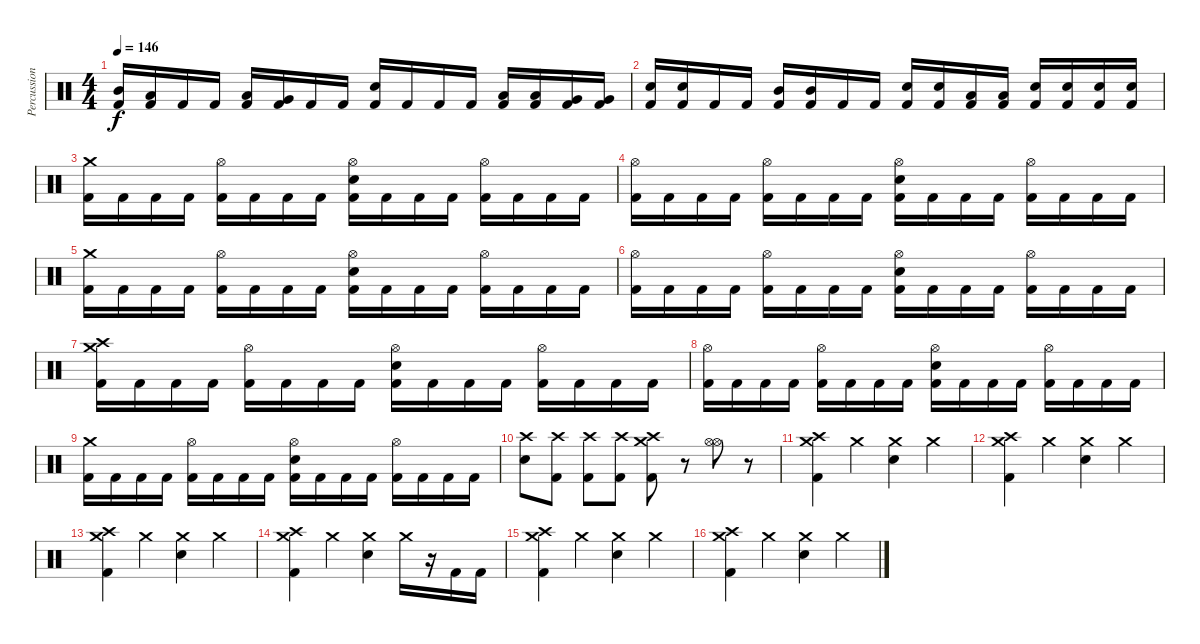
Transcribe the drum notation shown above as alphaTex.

\track ("Percussion" "Percussion") {instrument percussion}
\staff {score}
\articulation defaults
\ts (4 4)
\tempo 146
\clef neutral
\ks c
("Mid Tom (hit)" "Kick (hit) 2").16{dy f} ("Low Tom (hit)" "Kick (hit) 2").16 "Kick (hit) 2".16 "Kick (hit) 2".16 ("Low Tom (hit)" "Kick (hit) 2").16 ("Very Low Tom (hit)" "Kick (hit) 2").16 "Kick (hit) 2".16 "Kick (hit) 2".16 ("Snare (hit) 2" "Kick (hit) 2").16 "Kick (hit) 2".16 "Kick (hit) 2".16 "Kick (hit) 2".16 ("Low Tom (hit)" "Kick (hit) 2").16 ("Low Tom (hit)" "Kick (hit) 2").16 ("Very Low Tom (hit)" "Kick (hit) 2").16 ("Very Low Tom (hit)" "Kick (hit) 2").16 |
("Snare (hit) 2" "Kick (hit) 2").16 ("Snare (hit) 2" "Kick (hit) 2").16 "Kick (hit) 2".16 "Kick (hit) 2".16 ("Mid Tom (hit)" "Kick (hit) 2").16 ("Mid Tom (hit)" "Kick (hit) 2").16 "Kick (hit) 2".16 "Kick (hit) 2".16 ("Snare (hit) 2" "Kick (hit) 2").16 ("Snare (hit) 2" "Kick (hit) 2").16 ("Low Tom (hit)" "Kick (hit) 2").16 ("Low Tom (hit)" "Kick (hit) 2").16 ("Snare (hit) 2" "Kick (hit) 2").16 ("Snare (hit) 2" "Kick (hit) 2").16 ("Snare (hit) 2" "Kick (hit) 2").16 ("Snare (hit) 2" "Kick (hit) 2").16 |
("Crash medium (hit)" "Kick (hit) 2").16 "Kick (hit) 2".16 "Kick (hit) 2".16 "Kick (hit) 2".16 ("Hi-Hat (open)" "Kick (hit) 2").16 "Kick (hit) 2".16 "Kick (hit) 2".16 "Kick (hit) 2".16 ("Hi-Hat (open)" "Snare (hit) 2" "Kick (hit) 2").16 "Kick (hit) 2".16 "Kick (hit) 2".16 "Kick (hit) 2".16 ("Hi-Hat (open)" "Kick (hit) 2").16 "Kick (hit) 2".16 "Kick (hit) 2".16 "Kick (hit) 2".16 |
("Hi-Hat (open)" "Kick (hit) 2").16 "Kick (hit) 2".16 "Kick (hit) 2".16 "Kick (hit) 2".16 ("Hi-Hat (open)" "Kick (hit) 2").16 "Kick (hit) 2".16 "Kick (hit) 2".16 "Kick (hit) 2".16 ("Hi-Hat (open)" "Snare (hit) 2" "Kick (hit) 2").16 "Kick (hit) 2".16 "Kick (hit) 2".16 "Kick (hit) 2".16 ("Hi-Hat (open)" "Kick (hit) 2").16 "Kick (hit) 2".16 "Kick (hit) 2".16 "Kick (hit) 2".16 |
("Crash medium (hit)" "Kick (hit) 2").16 "Kick (hit) 2".16 "Kick (hit) 2".16 "Kick (hit) 2".16 ("Hi-Hat (open)" "Kick (hit) 2").16 "Kick (hit) 2".16 "Kick (hit) 2".16 "Kick (hit) 2".16 ("Hi-Hat (open)" "Snare (hit) 2" "Kick (hit) 2").16 "Kick (hit) 2".16 "Kick (hit) 2".16 "Kick (hit) 2".16 ("Hi-Hat (open)" "Kick (hit) 2").16 "Kick (hit) 2".16 "Kick (hit) 2".16 "Kick (hit) 2".16 |
("Hi-Hat (open)" "Kick (hit) 2").16 "Kick (hit) 2".16 "Kick (hit) 2".16 "Kick (hit) 2".16 ("Hi-Hat (open)" "Kick (hit) 2").16 "Kick (hit) 2".16 "Kick (hit) 2".16 "Kick (hit) 2".16 ("Hi-Hat (open)" "Snare (hit) 2" "Kick (hit) 2").16 "Kick (hit) 2".16 "Kick (hit) 2".16 "Kick (hit) 2".16 ("Hi-Hat (open)" "Kick (hit) 2").16 "Kick (hit) 2".16 "Kick (hit) 2".16 "Kick (hit) 2".16 |
("Crash high (hit)" "Crash medium (hit)" "Kick (hit) 2").16 "Kick (hit) 2".16 "Kick (hit) 2".16 "Kick (hit) 2".16 ("Hi-Hat (open)" "Kick (hit) 2").16 "Kick (hit) 2".16 "Kick (hit) 2".16 "Kick (hit) 2".16 ("Hi-Hat (open)" "Snare (hit) 2" "Kick (hit) 2").16 "Kick (hit) 2".16 "Kick (hit) 2".16 "Kick (hit) 2".16 ("Hi-Hat (open)" "Kick (hit) 2").16 "Kick (hit) 2".16 "Kick (hit) 2".16 "Kick (hit) 2".16 |
("Hi-Hat (open)" "Kick (hit) 2").16 "Kick (hit) 2".16 "Kick (hit) 2".16 "Kick (hit) 2".16 ("Hi-Hat (open)" "Kick (hit) 2").16 "Kick (hit) 2".16 "Kick (hit) 2".16 "Kick (hit) 2".16 ("Hi-Hat (open)" "Snare (hit) 2" "Kick (hit) 2").16 "Kick (hit) 2".16 "Kick (hit) 2".16 "Kick (hit) 2".16 ("Hi-Hat (open)" "Kick (hit) 2").16 "Kick (hit) 2".16 "Kick (hit) 2".16 "Kick (hit) 2".16 |
("Crash medium (hit)" "Kick (hit) 2").16 "Kick (hit) 2".16 "Kick (hit) 2".16 "Kick (hit) 2".16 ("Hi-Hat (open)" "Kick (hit) 2").16 "Kick (hit) 2".16 "Kick (hit) 2".16 "Kick (hit) 2".16 ("Hi-Hat (open)" "Snare (hit) 2" "Kick (hit) 2").16 "Kick (hit) 2".16 "Kick (hit) 2".16 "Kick (hit) 2".16 ("Hi-Hat (open)" "Kick (hit) 2").16 "Kick (hit) 2".16 "Kick (hit) 2".16 "Kick (hit) 2".16 |
("Crash high (hit)" "Snare (hit) 2").8 ("Crash high (hit)" "Kick (hit) 2").8 ("Crash high (hit)" "Kick (hit) 2").8 ("Crash high (hit)" "Kick (hit) 2").8 ("Crash high (hit)" "Crash medium (hit)" "Kick (hit) 2").8 r.8 ("Hi-Hat (open)" "Hi-Hat (open)").8 r.8 |
("Crash high (hit)" "Crash medium (hit)" "Kick (hit) 2").4 "Crash medium (hit)".4 ("Crash medium (hit)" "Snare (hit) 2").4 "Crash medium (hit)".4 |
("Crash high (hit)" "Crash medium (hit)" "Kick (hit) 2").4 "Crash medium (hit)".4 ("Crash medium (hit)" "Snare (hit) 2").4 "Crash medium (hit)".4 |
("Crash high (hit)" "Crash medium (hit)" "Kick (hit) 2").4 "Crash medium (hit)".4 ("Crash medium (hit)" "Snare (hit) 2").4 "Crash medium (hit)".4 |
("Crash high (hit)" "Crash medium (hit)" "Kick (hit) 2").4 "Crash medium (hit)".4 ("Crash medium (hit)" "Snare (hit) 2").4 "Crash medium (hit)".16 r.16 "Kick (hit) 2".16 "Kick (hit) 2".16 |
("Crash high (hit)" "Crash medium (hit)" "Kick (hit) 2").4 "Crash medium (hit)".4 ("Crash medium (hit)" "Snare (hit) 2").4 "Crash medium (hit)".4 |
("Crash high (hit)" "Crash medium (hit)" "Kick (hit) 2").4 "Crash medium (hit)".4 ("Crash medium (hit)" "Snare (hit) 2").4 "Crash medium (hit)".4
